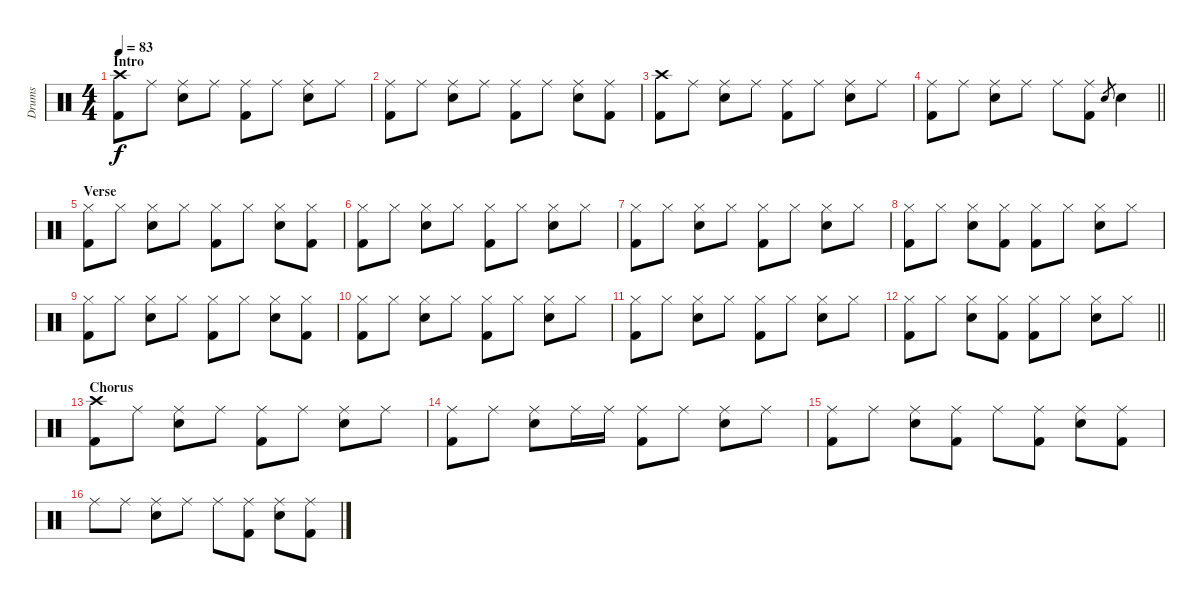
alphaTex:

\track ("Drums" "Drums") {instrument percussion}
\staff {score}
\articulation defaults
\ts (4 4)
\section ("" "Intro")
\tempo 83
\clef neutral
\ks c
("Crash high (hit)" "Kick (hit) 2").8{dy f} "Ride (middle)".8 ("Ride (middle)" "Snare (hit) 2").8 "Ride (middle)".8 ("Ride (middle)" "Kick (hit) 2").8 "Ride (middle)".8 ("Ride (middle)" "Snare (hit) 2").8 "Ride (middle)".8 |
("Ride (middle)" "Kick (hit) 2").8 "Ride (middle)".8 ("Ride (middle)" "Snare (hit) 2").8 "Ride (middle)".8 ("Ride (middle)" "Kick (hit) 2").8 "Ride (middle)".8 ("Ride (middle)" "Snare (hit) 2").8 ("Ride (middle)" "Kick (hit) 2").8 |
("Crash high (hit)" "Kick (hit) 2").8 "Ride (middle)".8 ("Ride (middle)" "Snare (hit) 2").8 "Ride (middle)".8 ("Ride (middle)" "Kick (hit) 2").8 "Ride (middle)".8 ("Ride (middle)" "Snare (hit) 2").8 "Ride (middle)".8 |
\barLineRight lightlight
("Ride (middle)" "Kick (hit) 2").8 "Ride (middle)".8 ("Ride (middle)" "Snare (hit) 2").8 "Ride (middle)".8 "Ride (middle)".8 ("Ride (middle)" "Kick (hit) 2").8 "Snare (hit) 2".8{gr} "Snare (hit) 2".4 |
\section ("" "Verse")
("Hi-Hat (closed)" "Kick (hit) 2").8 "Hi-Hat (closed)".8 ("Hi-Hat (closed)" "Snare (hit) 2").8 "Hi-Hat (closed)".8 ("Hi-Hat (closed)" "Kick (hit) 2").8 "Hi-Hat (closed)".8 ("Hi-Hat (closed)" "Snare (hit) 2").8 ("Hi-Hat (closed)" "Kick (hit) 2").8 |
("Hi-Hat (closed)" "Kick (hit) 2").8 "Hi-Hat (closed)".8 ("Hi-Hat (closed)" "Snare (hit) 2").8 "Hi-Hat (closed)".8 ("Hi-Hat (closed)" "Kick (hit) 2").8 "Hi-Hat (closed)".8 ("Hi-Hat (closed)" "Snare (hit) 2").8 "Hi-Hat (closed)".8 |
("Hi-Hat (closed)" "Kick (hit) 2").8 "Hi-Hat (closed)".8 ("Hi-Hat (closed)" "Snare (hit) 2").8 "Hi-Hat (closed)".8 ("Hi-Hat (closed)" "Kick (hit) 2").8 "Hi-Hat (closed)".8 ("Hi-Hat (closed)" "Snare (hit) 2").8 "Hi-Hat (closed)".8 |
("Hi-Hat (closed)" "Kick (hit) 2").8 "Hi-Hat (closed)".8 ("Hi-Hat (closed)" "Snare (hit) 2").8 ("Hi-Hat (closed)" "Kick (hit) 2").8 ("Hi-Hat (closed)" "Kick (hit) 2").8 "Hi-Hat (closed)".8 ("Hi-Hat (closed)" "Snare (hit) 2").8 "Hi-Hat (closed)".8 |
("Hi-Hat (closed)" "Kick (hit) 2").8 "Hi-Hat (closed)".8 ("Hi-Hat (closed)" "Snare (hit) 2").8 "Hi-Hat (closed)".8 ("Hi-Hat (closed)" "Kick (hit) 2").8 "Hi-Hat (closed)".8 ("Hi-Hat (closed)" "Snare (hit) 2").8 ("Hi-Hat (closed)" "Kick (hit) 2").8 |
("Hi-Hat (closed)" "Kick (hit) 2").8 "Hi-Hat (closed)".8 ("Hi-Hat (closed)" "Snare (hit) 2").8 "Hi-Hat (closed)".8 ("Hi-Hat (closed)" "Kick (hit) 2").8 "Hi-Hat (closed)".8 ("Hi-Hat (closed)" "Snare (hit) 2").8 "Hi-Hat (closed)".8 |
("Hi-Hat (closed)" "Kick (hit) 2").8 "Hi-Hat (closed)".8 ("Hi-Hat (closed)" "Snare (hit) 2").8 "Hi-Hat (closed)".8 ("Hi-Hat (closed)" "Kick (hit) 2").8 "Hi-Hat (closed)".8 ("Hi-Hat (closed)" "Snare (hit) 2").8 "Hi-Hat (closed)".8 |
\barLineRight lightlight
("Hi-Hat (closed)" "Kick (hit) 2").8 "Hi-Hat (closed)".8 ("Hi-Hat (closed)" "Snare (hit) 2").8 ("Hi-Hat (closed)" "Kick (hit) 2").8 ("Hi-Hat (closed)" "Kick (hit) 2").8 "Hi-Hat (closed)".8 ("Hi-Hat (closed)" "Snare (hit) 2").8 "Hi-Hat (closed)".8 |
\section ("" "Chorus")
("Crash high (hit)" "Kick (hit) 2").8 "Ride (middle)".8 ("Ride (middle)" "Snare (hit) 2").8 "Ride (middle)".8 ("Ride (middle)" "Kick (hit) 2").8 "Ride (middle)".8 ("Ride (middle)" "Snare (hit) 2").8 "Ride (middle)".8 |
("Ride (middle)" "Kick (hit) 2").8 "Ride (middle)".8 ("Ride (middle)" "Snare (hit) 2").8 "Ride (middle)".16 "Ride (middle)".16 ("Ride (middle)" "Kick (hit) 2").8 "Ride (middle)".8 ("Ride (middle)" "Snare (hit) 2").8 "Ride (middle)".8 |
("Ride (middle)" "Kick (hit) 2").8 "Ride (middle)".8 ("Ride (middle)" "Snare (hit) 2").8 ("Ride (middle)" "Kick (hit) 2").8 "Ride (middle)".8 ("Ride (middle)" "Kick (hit) 2").8 ("Ride (middle)" "Snare (hit) 2").8 ("Ride (middle)" "Kick (hit) 2").8 |
"Ride (middle)".8 "Ride (middle)".8 ("Ride (middle)" "Snare (hit) 2").8 "Ride (middle)".8 "Ride (middle)".8 ("Ride (middle)" "Kick (hit) 2").8 ("Ride (middle)" "Snare (hit) 2").8 ("Ride (middle)" "Kick (hit) 2").8
